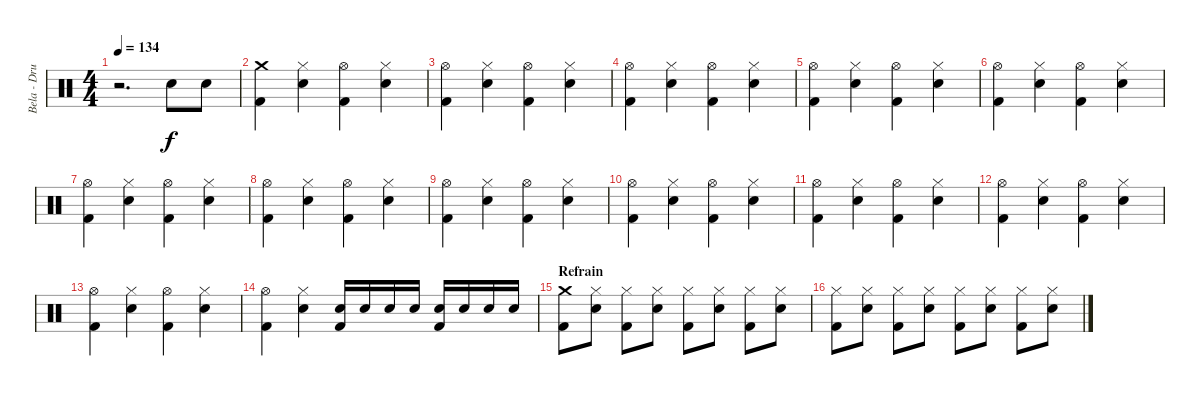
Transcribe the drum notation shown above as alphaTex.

\track ("Bela - Drums" "Bela - Dru") {instrument percussion}
\staff {score}
\articulation defaults
\ts (4 4)
\tempo 134
\clef neutral
\ks c
r.2{d dy f} "Electric Snare (hit)".8 "Electric Snare (hit)".8 |
("Crash medium (hit)" "Kick (hit) 2").4 ("Hi-Hat (closed)" "Electric Snare (hit)").4 ("Hi-Hat (open)" "Kick (hit) 2").4 ("Hi-Hat (closed)" "Electric Snare (hit)").4 |
("Hi-Hat (open)" "Kick (hit) 2").4 ("Hi-Hat (closed)" "Electric Snare (hit)").4 ("Hi-Hat (open)" "Kick (hit) 2").4 ("Hi-Hat (closed)" "Electric Snare (hit)").4 |
("Hi-Hat (open)" "Kick (hit) 2").4 ("Hi-Hat (closed)" "Electric Snare (hit)").4 ("Hi-Hat (open)" "Kick (hit) 2").4 ("Hi-Hat (closed)" "Electric Snare (hit)").4 |
("Hi-Hat (open)" "Kick (hit) 2").4 ("Hi-Hat (closed)" "Electric Snare (hit)").4 ("Hi-Hat (open)" "Kick (hit) 2").4 ("Hi-Hat (closed)" "Electric Snare (hit)").4 |
("Hi-Hat (open)" "Kick (hit) 2").4 ("Hi-Hat (closed)" "Electric Snare (hit)").4 ("Hi-Hat (open)" "Kick (hit) 2").4 ("Hi-Hat (closed)" "Electric Snare (hit)").4 |
("Hi-Hat (open)" "Kick (hit) 2").4 ("Hi-Hat (closed)" "Electric Snare (hit)").4 ("Hi-Hat (open)" "Kick (hit) 2").4 ("Hi-Hat (closed)" "Electric Snare (hit)").4 |
("Hi-Hat (open)" "Kick (hit) 2").4 ("Hi-Hat (closed)" "Electric Snare (hit)").4 ("Hi-Hat (open)" "Kick (hit) 2").4 ("Hi-Hat (closed)" "Electric Snare (hit)").4 |
("Hi-Hat (open)" "Kick (hit) 2").4 ("Hi-Hat (closed)" "Electric Snare (hit)").4 ("Hi-Hat (open)" "Kick (hit) 2").4 ("Hi-Hat (closed)" "Electric Snare (hit)").4 |
("Hi-Hat (open)" "Kick (hit) 2").4 ("Hi-Hat (closed)" "Electric Snare (hit)").4 ("Hi-Hat (open)" "Kick (hit) 2").4 ("Hi-Hat (closed)" "Electric Snare (hit)").4 |
("Hi-Hat (open)" "Kick (hit) 2").4 ("Hi-Hat (closed)" "Electric Snare (hit)").4 ("Hi-Hat (open)" "Kick (hit) 2").4 ("Hi-Hat (closed)" "Electric Snare (hit)").4 |
("Hi-Hat (open)" "Kick (hit) 2").4 ("Hi-Hat (closed)" "Electric Snare (hit)").4 ("Hi-Hat (open)" "Kick (hit) 2").4 ("Hi-Hat (closed)" "Electric Snare (hit)").4 |
("Hi-Hat (open)" "Kick (hit) 2").4 ("Hi-Hat (closed)" "Electric Snare (hit)").4 ("Hi-Hat (open)" "Kick (hit) 2").4 ("Hi-Hat (closed)" "Electric Snare (hit)").4 |
("Hi-Hat (open)" "Kick (hit) 2").4 ("Hi-Hat (closed)" "Electric Snare (hit)").4 ("Electric Snare (hit)" "Kick (hit) 2").16 "Electric Snare (hit)".16 "Electric Snare (hit)".16 "Electric Snare (hit)".16 ("Electric Snare (hit)" "Kick (hit) 2").16 "Electric Snare (hit)".16 "Electric Snare (hit)".16 "Electric Snare (hit)".16 |
\section ("" "Refrain")
("Crash medium (hit)" "Kick (hit) 2").8 ("Hi-Hat (closed)" "Electric Snare (hit)").8 ("Hi-Hat (closed)" "Kick (hit) 2").8 ("Hi-Hat (closed)" "Electric Snare (hit)").8 ("Hi-Hat (closed)" "Kick (hit) 2").8 ("Hi-Hat (closed)" "Electric Snare (hit)").8 ("Hi-Hat (closed)" "Kick (hit) 2").8 ("Hi-Hat (closed)" "Electric Snare (hit)").8 |
("Hi-Hat (closed)" "Kick (hit) 2").8 ("Hi-Hat (closed)" "Electric Snare (hit)").8 ("Hi-Hat (closed)" "Kick (hit) 2").8 ("Hi-Hat (closed)" "Electric Snare (hit)").8 ("Hi-Hat (closed)" "Kick (hit) 2").8 ("Hi-Hat (closed)" "Electric Snare (hit)").8 ("Hi-Hat (closed)" "Kick (hit) 2").8 ("Hi-Hat (closed)" "Electric Snare (hit)").8
